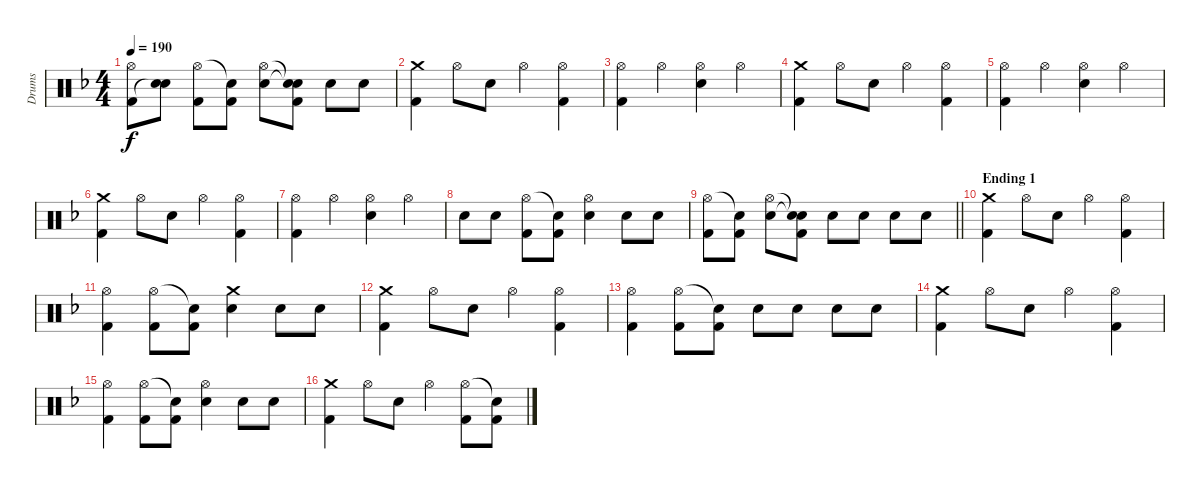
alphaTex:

\track ("Drums" "Drums") {instrument percussion}
\staff {score}
\articulation defaults
\ts (4 4)
\tempo 190
\clef neutral
\ks dminor
("Hi-Hat (open)" "Kick (hit) 2").8{dy f} ("Electric Snare (hit)" "Snare (hit)"{t}).8 ("Hi-Hat (open)" "Kick (hit) 2").8 ("Snare (hit)"{t} "Kick (hit) 2").8 ("Hi-Hat (open)" "Electric Snare (hit)").8 ("Snare (hit)"{t} "Snare (hit)"{t} "Kick (hit) 2").8 "Electric Snare (hit)".8 "Electric Snare (hit)".8 |
("Crash medium (hit)" "Kick (hit) 2").4 "Hi-Hat (open)".8 "Electric Snare (hit)".8 "Hi-Hat (open)".4 ("Hi-Hat (open)" "Kick (hit) 2").4 |
("Hi-Hat (open)" "Kick (hit) 2").4 "Hi-Hat (open)".4 ("Hi-Hat (open)" "Electric Snare (hit)").4 "Hi-Hat (open)".4 |
("Crash medium (hit)" "Kick (hit) 2").4 "Hi-Hat (open)".8 "Electric Snare (hit)".8 "Hi-Hat (open)".4 ("Hi-Hat (open)" "Kick (hit) 2").4 |
("Hi-Hat (open)" "Kick (hit) 2").4 "Hi-Hat (open)".4 ("Hi-Hat (open)" "Electric Snare (hit)").4 "Hi-Hat (open)".4 |
("Crash medium (hit)" "Kick (hit) 2").4 "Hi-Hat (open)".8 "Electric Snare (hit)".8 "Hi-Hat (open)".4 ("Hi-Hat (open)" "Kick (hit) 2").4 |
("Hi-Hat (open)" "Kick (hit) 2").4 "Hi-Hat (open)".4 ("Hi-Hat (open)" "Electric Snare (hit)").4 "Hi-Hat (open)".4 |
"Electric Snare (hit)".8 "Electric Snare (hit)".8 ("Hi-Hat (open)" "Kick (hit) 2").8 ("Snare (hit)"{t} "Kick (hit) 2").8 ("Hi-Hat (open)" "Electric Snare (hit)").4 "Electric Snare (hit)".8 "Electric Snare (hit)".8 |
\barLineRight lightlight
("Hi-Hat (open)" "Kick (hit) 2").8 ("Snare (hit)"{t} "Kick (hit) 2").8 ("Hi-Hat (open)" "Electric Snare (hit)").8 ("Snare (hit)"{t} "Snare (hit)"{t} "Kick (hit) 2").8 "Electric Snare (hit)".8 "Electric Snare (hit)".8 "Electric Snare (hit)".8 "Electric Snare (hit)".8 |
\section ("" "Ending 1")
("Crash medium (hit)" "Kick (hit) 2").4 "Hi-Hat (open)".8 "Electric Snare (hit)".8 "Hi-Hat (open)".4 ("Hi-Hat (open)" "Kick (hit) 2").4 |
("Hi-Hat (open)" "Kick (hit) 2").4 ("Hi-Hat (open)" "Kick (hit) 2").8 ("Snare (hit)"{t} "Kick (hit) 2").8 ("Crash medium (hit)" "Electric Snare (hit)").4 "Electric Snare (hit)".8 "Electric Snare (hit)".8 |
("Crash medium (hit)" "Kick (hit) 2").4 "Hi-Hat (open)".8 "Electric Snare (hit)".8 "Hi-Hat (open)".4 ("Hi-Hat (open)" "Kick (hit) 2").4 |
("Hi-Hat (open)" "Kick (hit) 2").4 ("Hi-Hat (open)" "Kick (hit) 2").8 ("Snare (hit)"{t} "Kick (hit) 2").8 "Electric Snare (hit)".8 "Electric Snare (hit)".8 "Electric Snare (hit)".8 "Electric Snare (hit)".8 |
("Crash medium (hit)" "Kick (hit) 2").4 "Hi-Hat (open)".8 "Electric Snare (hit)".8 "Hi-Hat (open)".4 ("Hi-Hat (open)" "Kick (hit) 2").4 |
("Hi-Hat (open)" "Kick (hit) 2").4 ("Hi-Hat (open)" "Kick (hit) 2").8 ("Snare (hit)"{t} "Kick (hit) 2").8 ("Hi-Hat (open)" "Electric Snare (hit)").4 "Electric Snare (hit)".8 "Electric Snare (hit)".8 |
("Crash medium (hit)" "Kick (hit) 2").4 "Hi-Hat (open)".8 "Electric Snare (hit)".8 "Hi-Hat (open)".4 ("Hi-Hat (open)" "Kick (hit) 2").8 ("Snare (hit)"{t} "Kick (hit) 2").8
